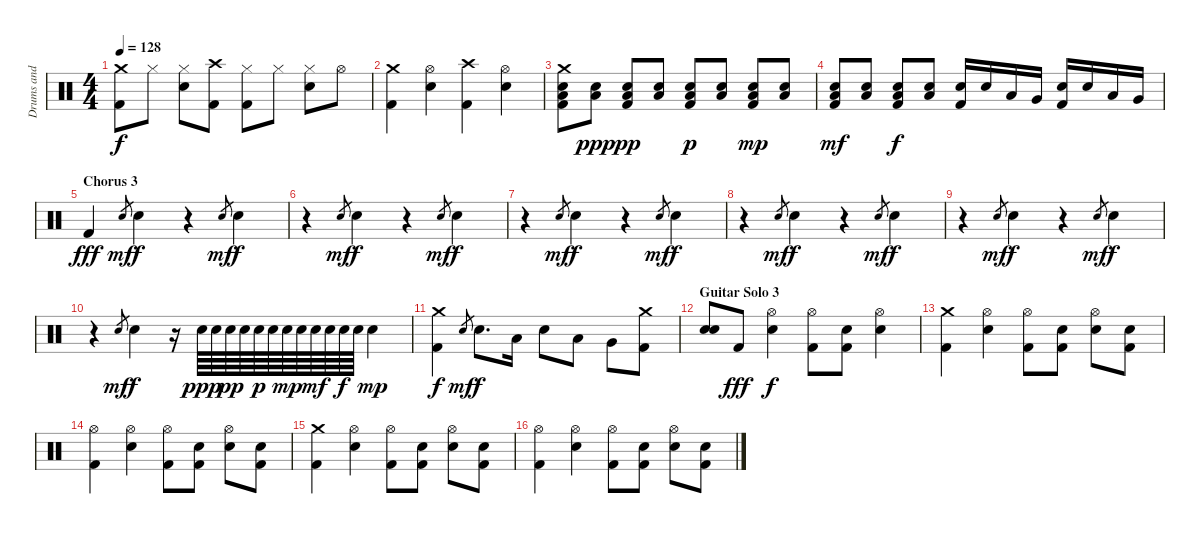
\track ("Drums and Percussion" "Drums and ") {instrument percussion}
\staff {score}
\articulation defaults
\ts (4 4)
\tempo 128
\clef neutral
\ks c
("Crash medium (hit)" "Kick (hit) 2").8{dy f} "Hi-Hat (closed)".8 ("Hi-Hat (closed)" "Snare (hit) 2").8 ("Crash high (hit)" "Kick (hit) 2").8 ("Hi-Hat (closed)" "Kick (hit) 2").8 "Hi-Hat (closed)".8 ("Hi-Hat (closed)" "Snare (hit) 2").8 "Hi-Hat (open)".8 |
("Crash medium (hit)" "Kick (hit) 2").4 ("Hi-Hat (open)" "Snare (hit) 2").4 ("Crash high (hit)" "Kick (hit) 2").4 ("Hi-Hat (open)" "Snare (hit) 2").4 |
("Crash medium (hit)" "Snare (hit) 2" "Low Floor Tom (hit)" "Kick (hit) 2").8 ("Snare (hit) 2" "Low Floor Tom (hit)").8{dy ppp} ("Snare (hit) 2" "Low Floor Tom (hit)" "Kick (hit) 2").8{dy pp} ("Snare (hit) 2" "Low Floor Tom (hit)").8 ("Snare (hit) 2" "Low Floor Tom (hit)" "Kick (hit) 2").8{dy p} ("Snare (hit) 2" "Low Floor Tom (hit)").8 ("Snare (hit) 2" "Low Floor Tom (hit)" "Kick (hit) 2").8{dy mp} ("Snare (hit) 2" "Low Floor Tom (hit)").8 |
("Snare (hit) 2" "Low Floor Tom (hit)" "Kick (hit) 2").8{dy mf} ("Snare (hit) 2" "Low Floor Tom (hit)").8 ("Snare (hit) 2" "Low Floor Tom (hit)" "Kick (hit) 2").8{dy f} ("Snare (hit) 2" "Low Floor Tom (hit)").8 ("Snare (hit) 2" "Kick (hit) 2").16 "Snare (hit) 2".16 "Low Tom (hit)".16 "Very Low Tom (hit)".16 ("Snare (hit) 2" "Kick (hit) 2").16 "Snare (hit) 2".16 "Low Tom (hit)".16 "Very Low Tom (hit)".16 |
\section ("" "Chorus 3")
"Kick (hit) 2".4{dy fff} "Snare (hit)".8{gr dy mf} "Snare (hit) 2".4{dy f} r.4 "Snare (hit)".8{gr dy mf} "Snare (hit) 2".4{dy f} |
r.4 "Snare (hit)".8{gr dy mf} "Snare (hit) 2".4{dy f} r.4 "Snare (hit)".8{gr dy mf} "Snare (hit) 2".4{dy f} |
r.4 "Snare (hit)".8{gr dy mf} "Snare (hit) 2".4{dy f} r.4 "Snare (hit)".8{gr dy mf} "Snare (hit) 2".4{dy f} |
r.4 "Snare (hit)".8{gr dy mf} "Snare (hit) 2".4{dy f} r.4 "Snare (hit)".8{gr dy mf} "Snare (hit) 2".4{dy f} |
r.4 "Snare (hit)".8{gr dy mf} "Snare (hit) 2".4{dy f} r.4 "Snare (hit)".8{gr dy mf} "Snare (hit) 2".4{dy f} |
r.4 "Snare (hit)".8{gr dy mf} "Snare (hit) 2".4{dy f} r.16 "Snare (hit) 2".64{dy ppp} "Snare (hit) 2".64 "Snare (hit) 2".64{dy pp} "Snare (hit) 2".64 "Snare (hit) 2".64{dy p} "Snare (hit) 2".64 "Snare (hit) 2".64{dy mp} "Snare (hit) 2".64 "Snare (hit) 2".64{dy mf} "Snare (hit) 2".64 "Snare (hit) 2".64{dy f} "Snare (hit) 2".64 "Snare (hit) 2".4{dy mp} |
("Crash medium (hit)" "Kick (hit) 2").4{dy f} "Snare (hit)".8{gr dy mf} "Snare (hit) 2".8{d dy f} "Low Tom (hit)".16 "Snare (hit) 2".8 "Low Tom (hit)".8 "Very Low Tom (hit)".8 ("Crash medium (hit)" "Kick (hit) 2").8 |
\section ("" "Guitar Solo 3")
("Snare (hit)" "Snare (hit)").8 "Kick (hit) 2".8{dy fff} ("Hi-Hat (open)" "Snare (hit) 2").4{dy f} ("Hi-Hat (open)" "Kick (hit) 2").8 ("Snare (hit)" "Kick (hit) 2").8 ("Hi-Hat (open)" "Snare (hit) 2").4 |
("Crash medium (hit)" "Kick (hit) 2").4 ("Hi-Hat (open)" "Snare (hit) 2").4 ("Hi-Hat (open)" "Kick (hit) 2").8 ("Snare (hit)" "Kick (hit) 2").8 ("Hi-Hat (open)" "Snare (hit) 2").8 ("Snare (hit)" "Kick (hit) 2").8 |
("Hi-Hat (open)" "Kick (hit) 2").4 ("Hi-Hat (open)" "Snare (hit) 2").4 ("Hi-Hat (open)" "Kick (hit) 2").8 ("Snare (hit)" "Kick (hit) 2").8 ("Hi-Hat (open)" "Snare (hit) 2").8 ("Snare (hit)" "Kick (hit) 2").8 |
("Crash medium (hit)" "Kick (hit) 2").4 ("Hi-Hat (open)" "Snare (hit) 2").4 ("Hi-Hat (open)" "Kick (hit) 2").8 ("Snare (hit)" "Kick (hit) 2").8 ("Hi-Hat (open)" "Snare (hit) 2").8 ("Snare (hit)" "Kick (hit) 2").8 |
("Hi-Hat (open)" "Kick (hit) 2").4 ("Hi-Hat (open)" "Snare (hit) 2").4 ("Hi-Hat (open)" "Kick (hit) 2").8 ("Snare (hit)" "Kick (hit) 2").8 ("Hi-Hat (open)" "Snare (hit) 2").8 ("Snare (hit)" "Kick (hit) 2").8
